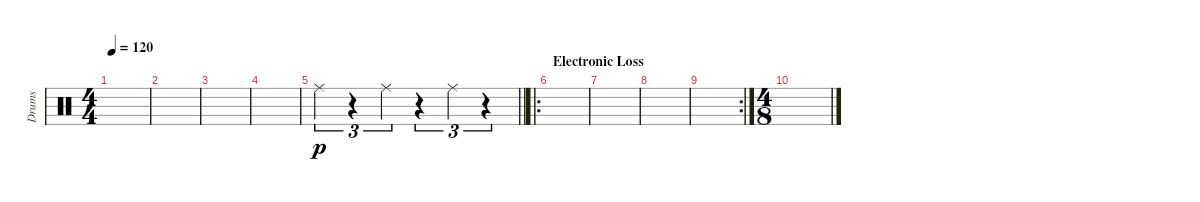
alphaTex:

\track ("Drums" "Drums") {instrument percussion}
\staff {score}
\articulation defaults
\ts (4 4)
\tempo 120
\clef neutral
\ks c
|
|
|
|
\barLineRight lightlight "Ride (middle)".4{tu (3 2) dy p}
r.4{tu (3 2)} "Ride (middle)".4{tu (3 2)} r.4{tu (3 2)} "Ride (middle)".4{tu (3 2)} r.4{tu (3 2)} |
\ro
\section ("" "Electronic Loss")
|
|
|
\rc 2
|
\ts (4 8)
